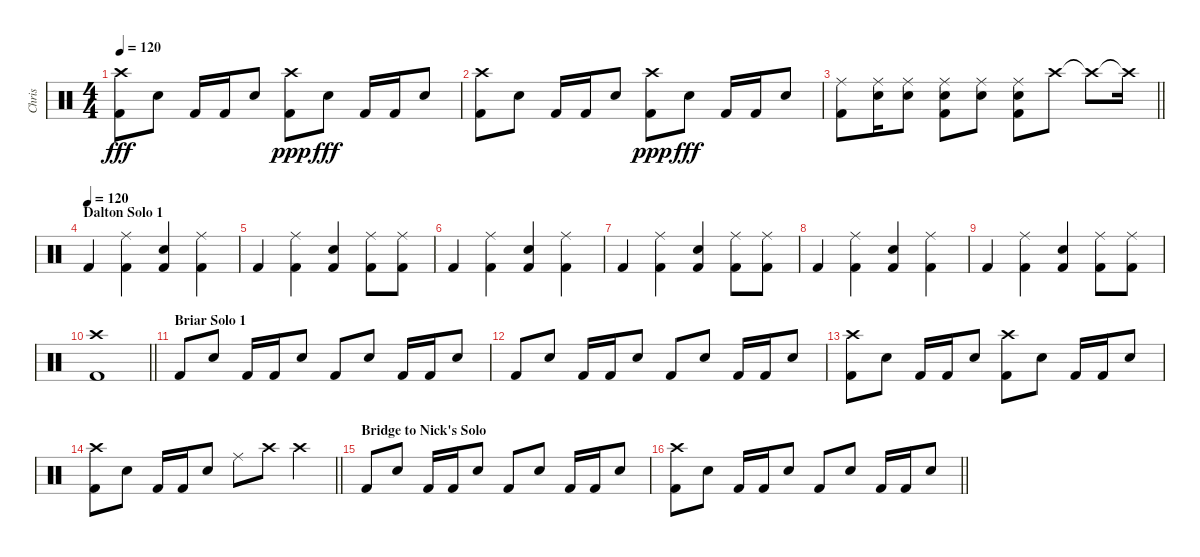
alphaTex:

\track ("Chris" "Chris") {instrument percussion}
\staff {score}
\articulation defaults
\ts (4 4)
\tempo 120
\clef neutral
\ks c
("Kick (hit) 2" "Crash high (hit)").8{dy fff} "Electric Snare (hit)".8 "Kick (hit) 2".16 "Kick (hit) 2".16 "Electric Snare (hit)".8 ("Kick (hit) 2" "Crash high (hit)").8{dy ppp} "Electric Snare (hit)".8{dy fff} "Kick (hit) 2".16 "Kick (hit) 2".16 "Electric Snare (hit)".8 |
("Kick (hit) 2" "Crash high (hit)").8 "Electric Snare (hit)".8 "Kick (hit) 2".16 "Kick (hit) 2".16 "Electric Snare (hit)".8 ("Kick (hit) 2" "Crash high (hit)").8{dy ppp} "Electric Snare (hit)".8{dy fff} "Kick (hit) 2".16 "Kick (hit) 2".16 "Electric Snare (hit)".8 |
\barLineRight lightlight
("Kick (hit) 2" "Ride (middle)").8 ("Electric Snare (hit)" "Ride (middle)").16 ("Electric Snare (hit)" "Ride (middle)").8 ("Electric Snare (hit)" "Ride (middle)" "Kick (hit) 2").8 ("Electric Snare (hit)" "Ride (middle)").8 ("Electric Snare (hit)" "Ride (middle)" "Kick (hit) 2").8 "Crash high (hit)".8 "Crash high (hit)"{t}.8 "Crash high (hit)"{t}.16 |
\section ("" "Dalton Solo 1")
\tempo (120)
"Kick (hit) 2".4 ("Kick (hit) 2" "Ride (middle)").4 ("Electric Snare (hit)" "Kick (hit) 2").4 ("Ride (middle)" "Kick (hit) 2").4 |
"Kick (hit) 2".4 ("Kick (hit) 2" "Ride (middle)").4 ("Electric Snare (hit)" "Kick (hit) 2").4 ("Ride (middle)" "Kick (hit) 2").8 ("Kick (hit) 2" "Ride (middle)").8 |
"Kick (hit) 2".4 ("Kick (hit) 2" "Ride (middle)").4 ("Electric Snare (hit)" "Kick (hit) 2").4 ("Ride (middle)" "Kick (hit) 2").4 |
"Kick (hit) 2".4 ("Kick (hit) 2" "Ride (middle)").4 ("Electric Snare (hit)" "Kick (hit) 2").4 ("Ride (middle)" "Kick (hit) 2").8 ("Kick (hit) 2" "Ride (middle)").8 |
"Kick (hit) 2".4 ("Kick (hit) 2" "Ride (middle)").4 ("Electric Snare (hit)" "Kick (hit) 2").4 ("Ride (middle)" "Kick (hit) 2").4 |
"Kick (hit) 2".4 ("Kick (hit) 2" "Ride (middle)").4 ("Electric Snare (hit)" "Kick (hit) 2").4 ("Ride (middle)" "Kick (hit) 2").8 ("Kick (hit) 2" "Ride (middle)").8 |
\barLineRight lightlight
("Crash high (hit)" "Kick (hit) 2").1 |
\section ("" "Briar Solo 1")
"Kick (hit) 2".8 "Electric Snare (hit)".8 "Kick (hit) 2".16 "Kick (hit) 2".16 "Electric Snare (hit)".8 "Kick (hit) 2".8 "Electric Snare (hit)".8 "Kick (hit) 2".16 "Kick (hit) 2".16 "Electric Snare (hit)".8 |
"Kick (hit) 2".8 "Electric Snare (hit)".8 "Kick (hit) 2".16 "Kick (hit) 2".16 "Electric Snare (hit)".8 "Kick (hit) 2".8 "Electric Snare (hit)".8 "Kick (hit) 2".16 "Kick (hit) 2".16 "Electric Snare (hit)".8 |
("Kick (hit) 2" "Crash high (hit)").8 "Electric Snare (hit)".8 "Kick (hit) 2".16 "Kick (hit) 2".16 "Electric Snare (hit)".8 ("Kick (hit) 2" "Crash high (hit)").8 "Electric Snare (hit)".8 "Kick (hit) 2".16 "Kick (hit) 2".16 "Electric Snare (hit)".8 |
\barLineRight lightlight
("Kick (hit) 2" "Crash high (hit)").8 "Electric Snare (hit)".8 "Kick (hit) 2".16 "Kick (hit) 2".16 "Electric Snare (hit)".8 "Ride (middle)".8 "Crash high (hit)".8 "Crash high (hit)".4 |
\section ("" "Bridge to Nick's Solo")
"Kick (hit) 2".8 "Electric Snare (hit)".8 "Kick (hit) 2".16 "Kick (hit) 2".16 "Electric Snare (hit)".8 "Kick (hit) 2".8 "Electric Snare (hit)".8 "Kick (hit) 2".16 "Kick (hit) 2".16 "Electric Snare (hit)".8 |
\barLineRight lightlight
("Kick (hit) 2" "Crash high (hit)").8 "Electric Snare (hit)".8 "Kick (hit) 2".16 "Kick (hit) 2".16 "Electric Snare (hit)".8 "Kick (hit) 2".8 "Electric Snare (hit)".8 "Kick (hit) 2".16 "Kick (hit) 2".16 "Electric Snare (hit)".8
